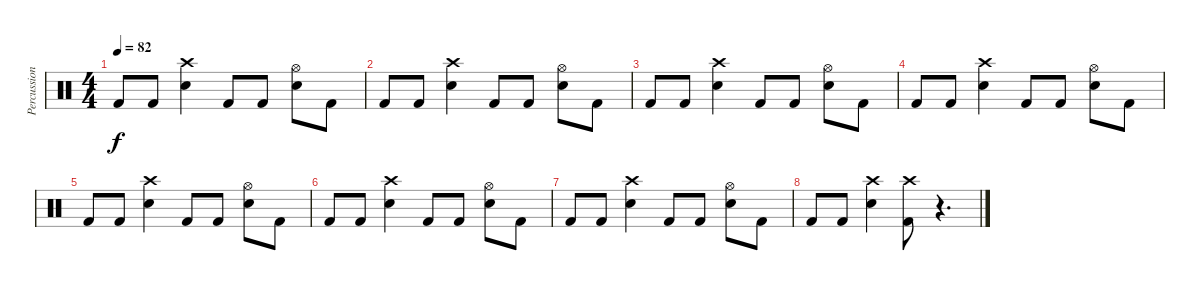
\track ("Percussion" "Percussion") {instrument percussion}
\staff {score}
\articulation defaults
\ts (4 4)
\tempo 82
\clef neutral
\ks c "Kick (hit) 2".8{dy f} "Kick (hit) 2".8
("Crash high (hit)" "Snare (hit) 2").4 "Kick (hit) 2".8 "Kick (hit) 2".8 ("Hi-Hat (open)" "Snare (hit) 2").8 "Kick (hit) 2".8 |
"Kick (hit) 2".8 "Kick (hit) 2".8 ("Crash high (hit)" "Snare (hit) 2").4 "Kick (hit) 2".8 "Kick (hit) 2".8 ("Hi-Hat (open)" "Snare (hit) 2").8 "Kick (hit) 2".8 |
"Kick (hit) 2".8 "Kick (hit) 2".8 ("Crash high (hit)" "Snare (hit) 2").4 "Kick (hit) 2".8 "Kick (hit) 2".8 ("Hi-Hat (open)" "Snare (hit) 2").8 "Kick (hit) 2".8 |
"Kick (hit) 2".8 "Kick (hit) 2".8 ("Crash high (hit)" "Snare (hit) 2").4 "Kick (hit) 2".8 "Kick (hit) 2".8 ("Hi-Hat (open)" "Snare (hit) 2").8 "Kick (hit) 2".8 |
"Kick (hit) 2".8 "Kick (hit) 2".8 ("Crash high (hit)" "Snare (hit) 2").4 "Kick (hit) 2".8 "Kick (hit) 2".8 ("Hi-Hat (open)" "Snare (hit) 2").8 "Kick (hit) 2".8 |
"Kick (hit) 2".8 "Kick (hit) 2".8 ("Crash high (hit)" "Snare (hit) 2").4 "Kick (hit) 2".8 "Kick (hit) 2".8 ("Hi-Hat (open)" "Snare (hit) 2").8 "Kick (hit) 2".8 |
"Kick (hit) 2".8 "Kick (hit) 2".8 ("Crash high (hit)" "Snare (hit) 2").4 "Kick (hit) 2".8 "Kick (hit) 2".8 ("Hi-Hat (open)" "Snare (hit) 2").8 "Kick (hit) 2".8 |
"Kick (hit) 2".8 "Kick (hit) 2".8 ("Crash high (hit)" "Snare (hit) 2").4 ("Crash high (hit)" "Kick (hit) 2").8 r.4{d}
